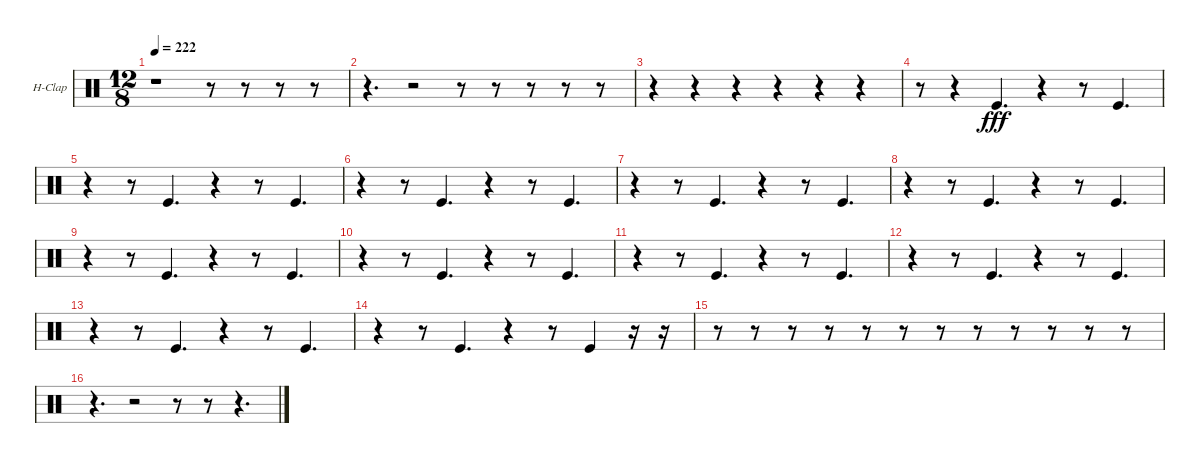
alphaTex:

\bracketExtendMode nobrackets
\firstSystemTrackNameOrientation horizontal
\otherSystemsTrackNameOrientation horizontal
\track ("Hand Clap" "H-Clap") {instrument percussion}
\staff {score}
\articulation defaults
\ts (12 8)
\tempo 222
\clef neutral
\ks c
r.1{dy f} r.8 r.8 r.8 r.8 |
r.4{d} r.2 r.8 r.8 r.8 r.8 r.8 |
r.4 r.4 r.4 r.4 r.4 r.4 |
r.8 r.4 "Kick (hit)".4{d dy fff} r.4 r.8 "Kick (hit)".4{d} |
r.4 r.8 "Kick (hit)".4{d} r.4 r.8 "Kick (hit)".4{d} |
r.4 r.8 "Kick (hit)".4{d} r.4 r.8 "Kick (hit)".4{d} |
r.4 r.8 "Kick (hit)".4{d} r.4 r.8 "Kick (hit)".4{d} |
r.4 r.8 "Kick (hit)".4{d} r.4 r.8 "Kick (hit)".4{d} |
r.4 r.8 "Kick (hit)".4{d} r.4 r.8 "Kick (hit)".4{d} |
r.4 r.8 "Kick (hit)".4{d} r.4 r.8 "Kick (hit)".4{d} |
r.4 r.8 "Kick (hit)".4{d} r.4 r.8 "Kick (hit)".4{d} |
r.4 r.8 "Kick (hit)".4{d} r.4 r.8 "Kick (hit)".4{d} |
r.4 r.8 "Kick (hit)".4{d} r.4 r.8 "Kick (hit)".4{d} |
r.4 r.8 "Kick (hit)".4{d} r.4 r.8 "Kick (hit)".4 r.16 r.16 |
r.8 r.8 r.8 r.8 r.8 r.8 r.8 r.8 r.8 r.8 r.8 r.8 |
r.4{d} r.2 r.8 r.8 r.4{d}
